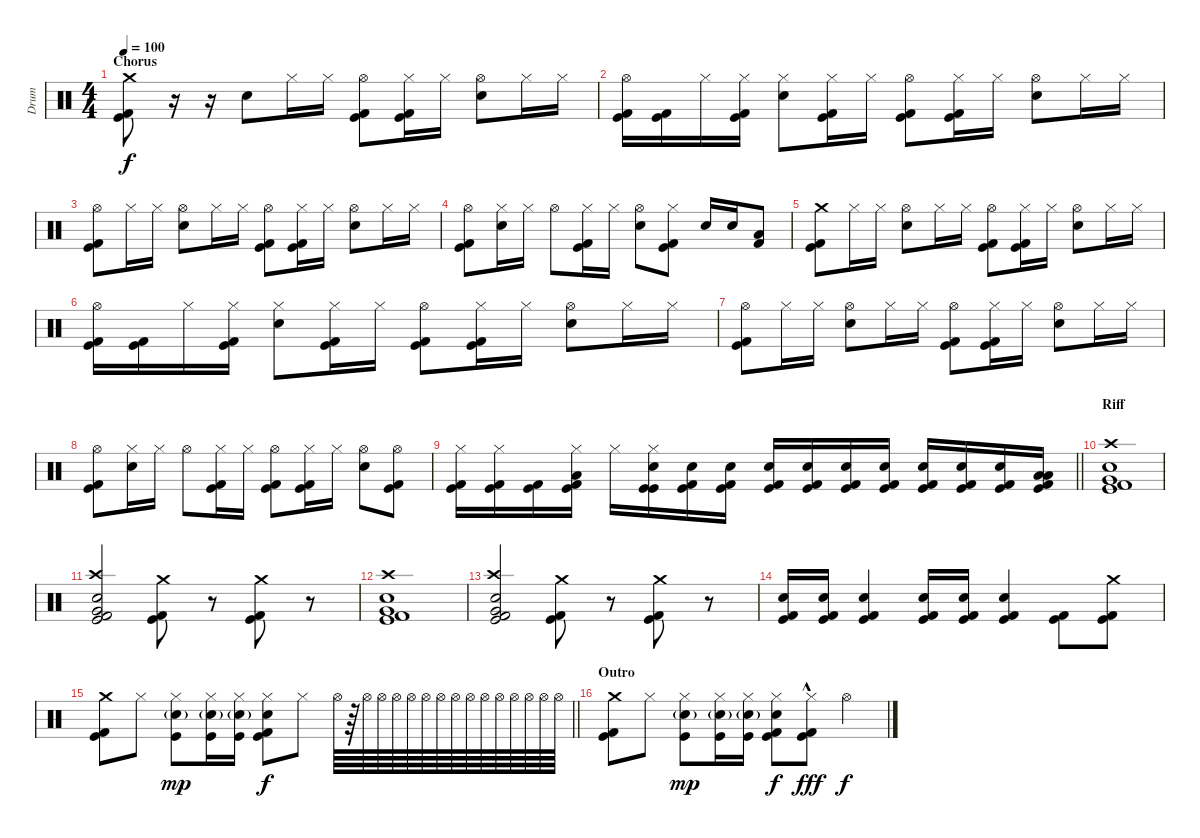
\track ("Drum" "Drum") {instrument percussion}
\staff {score}
\articulation defaults
\ts (4 4)
\section ("" "Chorus")
\tempo 100
\clef neutral
\ks c
("Crash medium (hit)" "Kick (hit) 2" "Kick (hit)").8{dy f} r.16 r.16 "Electric Snare (hit)".8 "Hi-Hat (closed)".16 "Hi-Hat (closed)".16 ("Hi-Hat (open)" "Kick (hit) 2" "Kick (hit)").8 ("Hi-Hat (closed)" "Kick (hit) 2" "Kick (hit)").16 "Hi-Hat (closed)".16 ("Hi-Hat (open)" "Electric Snare (hit)").8 "Hi-Hat (closed)".16 "Hi-Hat (closed)".16 |
("Hi-Hat (open)" "Kick (hit) 2" "Kick (hit)").16 ("Kick (hit) 2" "Kick (hit)").16 "Hi-Hat (closed)".16 ("Hi-Hat (closed)" "Kick (hit) 2" "Kick (hit)").16 ("Hi-Hat (closed)" "Electric Snare (hit)").8 ("Hi-Hat (closed)" "Kick (hit) 2" "Kick (hit)").16 "Hi-Hat (closed)".16 ("Hi-Hat (open)" "Kick (hit) 2" "Kick (hit)").8 ("Hi-Hat (closed)" "Kick (hit) 2" "Kick (hit)").16 "Hi-Hat (closed)".16 ("Hi-Hat (open)" "Electric Snare (hit)").8 "Hi-Hat (closed)".16 "Hi-Hat (closed)".16 |
("Hi-Hat (open)" "Kick (hit) 2" "Kick (hit)").8 "Hi-Hat (closed)".16 "Hi-Hat (closed)".16 ("Hi-Hat (open)" "Electric Snare (hit)").8 "Hi-Hat (closed)".16 "Hi-Hat (closed)".16 ("Hi-Hat (open)" "Kick (hit) 2" "Kick (hit)").8 ("Hi-Hat (closed)" "Kick (hit) 2" "Kick (hit)").16 "Hi-Hat (closed)".16 ("Hi-Hat (open)" "Electric Snare (hit)").8 "Hi-Hat (closed)".16 "Hi-Hat (closed)".16 |
("Hi-Hat (open)" "Kick (hit) 2" "Kick (hit)").8 ("Hi-Hat (closed)" "Electric Snare (hit)").16 "Hi-Hat (closed)".16 "Hi-Hat (open)".8 ("Hi-Hat (closed)" "Kick (hit) 2" "Kick (hit)").16 "Hi-Hat (closed)".16 ("Hi-Hat (open)" "Electric Snare (hit)").8 ("Hi-Hat (closed)" "Kick (hit) 2" "Kick (hit)").8 "Electric Snare (hit)".16 "Electric Snare (hit)".16 ("Low Floor Tom (hit)" "Kick (hit) 2").8 |
("Crash medium (hit)" "Kick (hit) 2" "Kick (hit)").8 "Hi-Hat (closed)".16 "Hi-Hat (closed)".16 ("Hi-Hat (open)" "Electric Snare (hit)").8 "Hi-Hat (closed)".16 "Hi-Hat (closed)".16 ("Hi-Hat (open)" "Kick (hit) 2" "Kick (hit)").8 ("Hi-Hat (closed)" "Kick (hit) 2" "Kick (hit)").16 "Hi-Hat (closed)".16 ("Hi-Hat (open)" "Electric Snare (hit)").8 "Hi-Hat (closed)".16 "Hi-Hat (closed)".16 |
("Hi-Hat (open)" "Kick (hit) 2" "Kick (hit)").16 ("Kick (hit) 2" "Kick (hit)").16 "Hi-Hat (closed)".16 ("Hi-Hat (closed)" "Kick (hit) 2" "Kick (hit)").16 ("Hi-Hat (closed)" "Electric Snare (hit)").8 ("Hi-Hat (closed)" "Kick (hit) 2" "Kick (hit)").16 "Hi-Hat (closed)".16 ("Hi-Hat (open)" "Kick (hit) 2" "Kick (hit)").8 ("Hi-Hat (closed)" "Kick (hit) 2" "Kick (hit)").16 "Hi-Hat (closed)".16 ("Hi-Hat (open)" "Electric Snare (hit)").8 "Hi-Hat (closed)".16 "Hi-Hat (closed)".16 |
("Hi-Hat (open)" "Kick (hit) 2" "Kick (hit)").8 "Hi-Hat (closed)".16 "Hi-Hat (closed)".16 ("Hi-Hat (open)" "Electric Snare (hit)").8 "Hi-Hat (closed)".16 "Hi-Hat (closed)".16 ("Hi-Hat (open)" "Kick (hit) 2" "Kick (hit)").8 ("Hi-Hat (closed)" "Kick (hit) 2" "Kick (hit)").16 "Hi-Hat (closed)".16 ("Hi-Hat (open)" "Electric Snare (hit)").8 "Hi-Hat (closed)".16 "Hi-Hat (closed)".16 |
("Hi-Hat (open)" "Kick (hit) 2" "Kick (hit)").8 ("Hi-Hat (closed)" "Electric Snare (hit)").16 "Hi-Hat (closed)".16 "Hi-Hat (open)".8 ("Hi-Hat (closed)" "Kick (hit) 2" "Kick (hit)").16 "Hi-Hat (closed)".16 ("Hi-Hat (open)" "Kick (hit) 2" "Kick (hit)").8 ("Hi-Hat (closed)" "Kick (hit) 2" "Kick (hit)").16 "Hi-Hat (closed)".16 ("Hi-Hat (open)" "Electric Snare (hit)").8 ("Hi-Hat (open)" "Kick (hit) 2" "Kick (hit)").8 |
\barLineRight lightlight
("Hi-Hat (closed)" "Kick (hit) 2" "Kick (hit)").16 ("Hi-Hat (closed)" "Kick (hit) 2" "Kick (hit)").16 ("Kick (hit) 2" "Kick (hit)").16 ("Hi-Hat (closed)" "Low Floor Tom (hit)" "Kick (hit) 2" "Kick (hit)").16 "Hi-Hat (closed)".16 ("Hi-Hat (closed)" "Snare (hit) 2" "Kick (hit)" "Kick (hit)").16 ("Snare (hit) 2" "Kick (hit) 2" "Kick (hit)").16 ("Snare (hit) 2" "Kick (hit) 2" "Kick (hit)").16 ("Snare (hit) 2" "Kick (hit) 2" "Kick (hit)").16 ("Snare (hit) 2" "Kick (hit) 2" "Kick (hit)").16 ("Snare (hit) 2" "Kick (hit) 2" "Kick (hit)").16 ("Snare (hit) 2" "Kick (hit) 2" "Kick (hit)").16 ("Snare (hit) 2" "Kick (hit) 2" "Kick (hit)").16 ("Snare (hit) 2" "Kick (hit) 2" "Kick (hit)").16 ("Snare (hit) 2" "Kick (hit) 2" "Kick (hit)").16 ("Low Floor Tom (hit)" "Low Floor Tom (hit)" "Kick (hit) 2" "Kick (hit)").16 |
\section ("" "Riff")
("Crash high (hit)" "Snare (hit) 2" "Very Low Tom (hit)" "Kick (hit) 2" "Kick (hit)").1 |
("Crash high (hit)" "Snare (hit) 2" "Very Low Tom (hit)" "Kick (hit) 2" "Kick (hit)").2 ("Crash medium (hit)" "Kick (hit) 2" "Kick (hit)").8 r.8 ("Crash medium (hit)" "Kick (hit) 2" "Kick (hit)").8 r.8 |
("Crash high (hit)" "Snare (hit) 2" "Very Low Tom (hit)" "Kick (hit) 2" "Kick (hit)").1 |
("Crash high (hit)" "Snare (hit) 2" "Very Low Tom (hit)" "Kick (hit) 2" "Kick (hit)").2 ("Crash medium (hit)" "Kick (hit) 2" "Kick (hit)").8 r.8 ("Crash medium (hit)" "Kick (hit) 2" "Kick (hit)").8 r.8 |
("Electric Snare (hit)" "Kick (hit) 2" "Kick (hit)").16 ("Electric Snare (hit)" "Kick (hit) 2" "Kick (hit)").16 ("Electric Snare (hit)" "Kick (hit) 2" "Kick (hit)").4 ("Electric Snare (hit)" "Kick (hit) 2" "Kick (hit)").16 ("Electric Snare (hit)" "Kick (hit) 2" "Kick (hit)").16 ("Electric Snare (hit)" "Kick (hit) 2" "Kick (hit)").4 ("Kick (hit) 2" "Kick (hit)").8 ("Crash medium (hit)" "Kick (hit) 2" "Kick (hit)").8 |
\barLineRight lightlight
("Crash medium (hit)" "Kick (hit) 2" "Kick (hit)").8 "Hi-Hat (closed)".8 ("Hi-Hat (closed)" "Electric Snare (hit)"{g} "Kick (hit)").8{dy mp} ("Hi-Hat (closed)" "Electric Snare (hit)"{g} "Kick (hit)").16 ("Hi-Hat (closed)" "Electric Snare (hit)"{g} "Kick (hit)").16 ("Hi-Hat (closed)" "Snare (hit) 2" "Kick (hit) 2" "Kick (hit)").8{dy f} "Hi-Hat (closed)".8 "Hi-Hat (open)".64 r.64 "Hi-Hat (open)".64 "Hi-Hat (open)".64 "Hi-Hat (open)".64 "Hi-Hat (open)".64 "Hi-Hat (open)".64 "Hi-Hat (open)".64 "Hi-Hat (open)".64 "Hi-Hat (open)".64 "Hi-Hat (open)".64 "Hi-Hat (open)".64 "Hi-Hat (open)".64 "Hi-Hat (open)".64 "Hi-Hat (open)".64 "Hi-Hat (open)".64 |
\section ("" "Outro")
("Crash medium (hit)" "Kick (hit) 2" "Kick (hit)").8 "Hi-Hat (closed)".8 ("Hi-Hat (closed)" "Electric Snare (hit)"{g} "Kick (hit)").8{dy mp} ("Hi-Hat (closed)" "Electric Snare (hit)"{g} "Kick (hit)").16 ("Hi-Hat (closed)" "Electric Snare (hit)"{g} "Kick (hit)").16 ("Hi-Hat (closed)" "Snare (hit) 2" "Kick (hit) 2" "Kick (hit)").8{dy f} ("Hi-Hat (closed)"{hac} "Kick (hit) 2" "Kick (hit)").8{dy fff} "Hi-Hat (open)".4{dy f}
